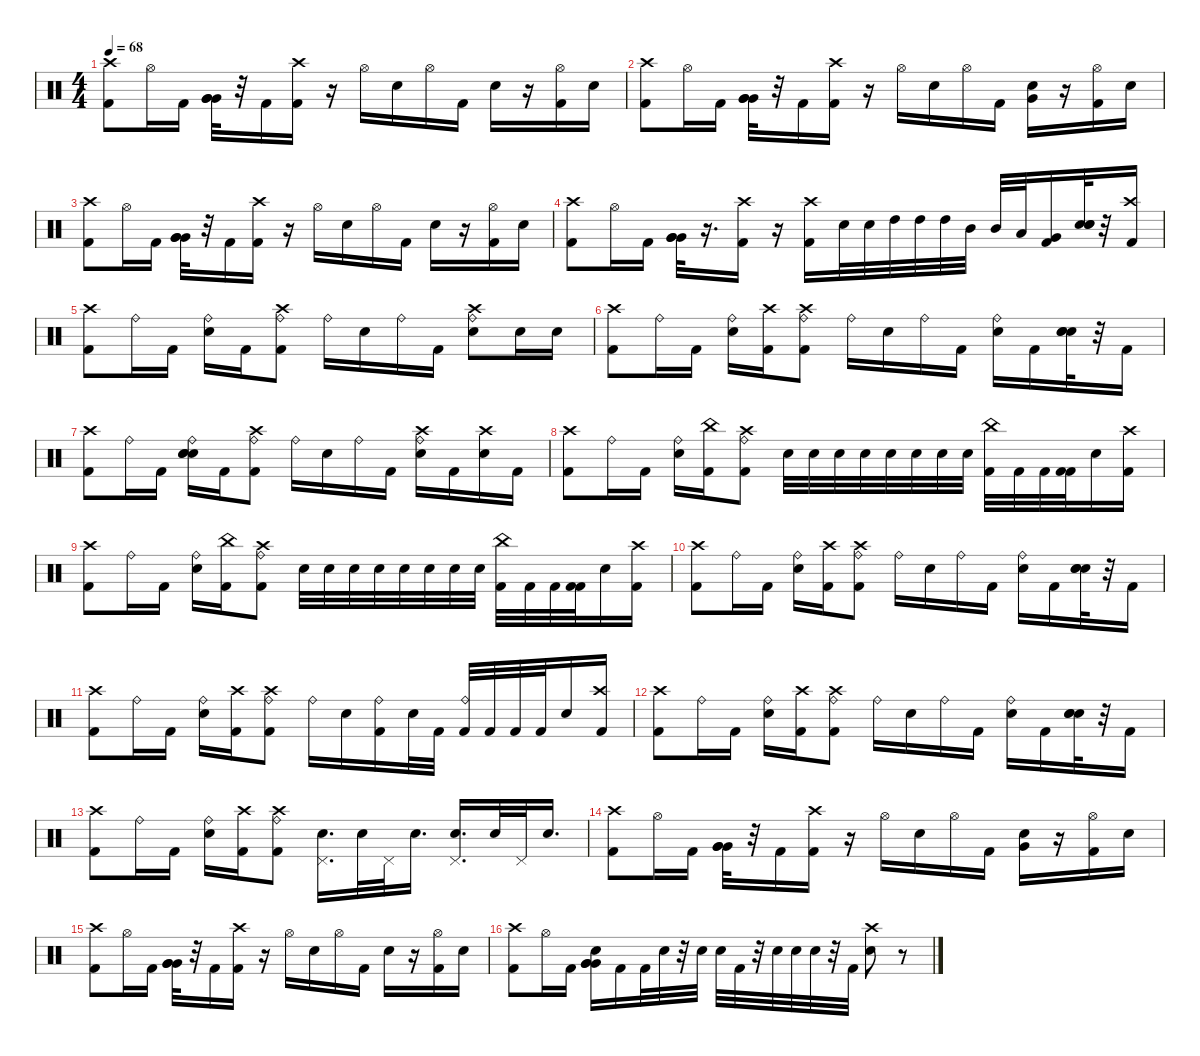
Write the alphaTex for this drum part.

\defaultSystemsLayout 4
\hideDynamics
\bracketExtendMode nobrackets
\singleTrackTrackNamePolicy hidden
\multiTrackTrackNamePolicy hidden
\firstSystemTrackNameMode fullname
\otherSystemsTrackNameOrientation horizontal
\track ("Drums" "drm.") {instrument percussion}
\staff {score}
\articulation defaults
\ts (4 4)
\tempo 68
\clef neutral
\ks c
("Crash high (hit)" "Kick (hit) 2").8{dy f beam Down} "Hi-Hat (open)".16{beam Down} "Kick (hit) 2".16{beam Down} ("Very Low Tom (hit)" "Very Low Tom (hit)" "Very Low Tom (hit)").32{beam Down} r.32{beam Down} "Kick (hit) 2".16{beam Down} ("Crash high (hit)" "Kick (hit) 2").16{beam Down} r.16{beam Down} "Hi-Hat (open)".16{beam Down} "Snare (hit) 2".16{beam Down} "Hi-Hat (open)".16{beam Down} "Kick (hit) 2".16{beam Down} "Snare (hit) 2".16{beam Down} r.16{beam Down} ("Kick (hit) 2" "Hi-Hat (open)").16{beam Down} "Snare (hit) 2".16{beam Down} |
("Kick (hit) 2" "Crash high (hit)").8{beam Down} "Hi-Hat (open)".16{beam Down} "Kick (hit) 2".16{beam Down} ("Very Low Tom (hit)" "Very Low Tom (hit)" "Very Low Tom (hit)").32{beam Down} r.32{beam Down} "Kick (hit) 2".16{beam Down} ("Crash high (hit)" "Kick (hit) 2").16{beam Down} r.16{beam Down} "Hi-Hat (open)".16{beam Down} "Snare (hit) 2".16{beam Down} "Hi-Hat (open)".16{beam Down} "Kick (hit) 2".16{beam Down} ("Snare (hit) 2" "Very Low Tom (hit)").16{beam Down} r.16{beam Down} ("Kick (hit) 2" "Hi-Hat (open)").16{beam Down} "Snare (hit) 2".16{beam Down} |
("Kick (hit) 2" "Crash high (hit)").8{beam Down} "Hi-Hat (open)".16{beam Down} "Kick (hit) 2".16{beam Down} ("Very Low Tom (hit)" "Very Low Tom (hit)" "Very Low Tom (hit)").32{beam Down} r.32{beam Down} "Kick (hit) 2".16{beam Down} ("Crash high (hit)" "Kick (hit) 2").16{beam Down} r.16{beam Down} "Hi-Hat (open)".16{beam Down} "Snare (hit) 2".16{beam Down} "Hi-Hat (open)".16{beam Down} "Kick (hit) 2".16{beam Down} "Snare (hit) 2".16{beam Down} r.16{beam Down} ("Kick (hit) 2" "Hi-Hat (open)").16{beam Down} "Snare (hit) 2".16{beam Down} |
("Crash high (hit)" "Kick (hit) 2").8{beam Down} "Hi-Hat (open)".16{beam Down} "Kick (hit) 2".16{beam Down} ("Very Low Tom (hit)" "Very Low Tom (hit)" "Very Low Tom (hit)").32{beam Down} r.16{d beam Down} ("Crash high (hit)" "Kick (hit) 2").16{beam Down} r.16{beam Down} ("Crash high (hit)" "Kick (hit) 2").16{beam Down} "Snare (hit) 2".32{beam Down} "Snare (hit) 2".32{beam Down} "High Tom (hit)".32{beam Down} "High Tom (hit)".32{beam Down} "High Tom (hit)".32{beam Down} "Mid Tom (hit)".32{beam Down} "Mid Tom (hit)".32{beam Up} "Low Tom (hit)".32{beam Up} ("Kick (hit) 2" "Very Low Tom (hit)").16{beam Up} ("Snare (hit) 2" "Snare (hit) 2" "Snare (hit) 2").32{beam Up} r.32{beam Up} ("Crash high (hit)" "Kick (hit) 2").16{beam Up} |
("Kick (hit) 2" "Crash high (hit)").8{beam Down} "Ride (bell)".16{beam Down} "Kick (hit) 2".16{beam Down} ("Ride (bell)" "Snare (hit) 2").16{beam Down} "Kick (hit) 2".16{beam Down} ("Ride (bell)" "Crash high (hit)" "Kick (hit) 2").8{beam Down} "Ride (bell)".16{beam Down} "Snare (hit) 2".16{beam Down} "Ride (bell)".16{beam Down} "Kick (hit) 2".16{beam Down} ("Snare (hit) 2" "Ride (bell)" "Crash high (hit)").8{beam Down} "Snare (hit) 2".16{beam Down} "Snare (hit) 2".16{beam Down} |
("Kick (hit) 2" "Crash high (hit)").8{beam Down} "Ride (bell)".16{beam Down} "Kick (hit) 2".16{beam Down} ("Ride (bell)" "Snare (hit) 2").16{beam Down} ("Crash high (hit)" "Kick (hit) 2").16{beam Down} ("Ride (bell)" "Crash high (hit)" "Kick (hit) 2").8{beam Down} "Ride (bell)".16{beam Down} "Snare (hit) 2".16{beam Down} "Ride (bell)".16{beam Down} "Kick (hit) 2".16{beam Down} ("Snare (hit) 2" "Ride (bell)").16{beam Down} "Kick (hit) 2".16{beam Down} ("Snare (hit) 2" "Snare (hit) 2" "Snare (hit) 2").32{beam Down} r.32{beam Down} "Kick (hit) 2".16{beam Down} |
("Kick (hit) 2" "Crash high (hit)").8{beam Down} "Ride (bell)".16{beam Down} "Kick (hit) 2".16{beam Down} ("Ride (bell)" "Snare (hit) 2" "Snare (hit) 2" "Snare (hit) 2").16{beam Down} "Kick (hit) 2".16{beam Down} ("Ride (bell)" "Crash high (hit)" "Kick (hit) 2").8{beam Down} "Ride (bell)".16{beam Down} "Snare (hit) 2".16{beam Down} "Ride (bell)".16{beam Down} "Kick (hit) 2".16{beam Down} ("Snare (hit) 2" "Ride (bell)" "Crash high (hit)").16{beam Down} "Kick (hit) 2".16{beam Down} ("Snare (hit) 2" "Crash high (hit)").16{beam Down} "Kick (hit) 2".16{beam Down} |
("Crash high (hit)" "Kick (hit) 2").8{beam Down} "Ride (bell)".16{beam Down} "Kick (hit) 2".16{beam Down} ("Ride (bell)" "Snare (hit) 2").16{beam Down} ("Kick (hit) 2" "China (hit)").16{beam Down} ("Ride (bell)" "Crash high (hit)" "Kick (hit) 2").8{beam Down} "Snare (hit) 2".32{beam Down} "Snare (hit) 2".32{beam Down} "Snare (hit) 2".32{beam Down} "Snare (hit) 2".32{beam Down} "Snare (hit) 2".32{beam Down} "Snare (hit) 2".32{beam Down} "Snare (hit) 2".32{beam Down} "Snare (hit) 2".32{beam Down} ("China (hit)" "Kick (hit) 2").32{beam Down} "Kick (hit) 2".32{beam Down} "Kick (hit) 2".32{beam Down} ("Kick (hit) 2" "Kick (hit) 2").32{beam Down} "Snare (hit) 2".16{beam Down} ("Crash high (hit)" "Kick (hit) 2").16{beam Down} |
("Crash high (hit)" "Kick (hit) 2").8{beam Down} "Ride (bell)".16{beam Down} "Kick (hit) 2".16{beam Down} ("Ride (bell)" "Snare (hit) 2").16{beam Down} ("Kick (hit) 2" "China (hit)").16{beam Down} ("Ride (bell)" "Crash high (hit)" "Kick (hit) 2").8{beam Down} "Snare (hit) 2".32{beam Down} "Snare (hit) 2".32{beam Down} "Snare (hit) 2".32{beam Down} "Snare (hit) 2".32{beam Down} "Snare (hit) 2".32{beam Down} "Snare (hit) 2".32{beam Down} "Snare (hit) 2".32{beam Down} "Snare (hit) 2".32{beam Down} ("China (hit)" "Kick (hit) 2").32{beam Down} "Kick (hit) 2".32{beam Down} "Kick (hit) 2".32{beam Down} ("Kick (hit) 2" "Kick (hit) 2").32{beam Down} "Snare (hit) 2".16{beam Down} ("Crash high (hit)" "Kick (hit) 2").16{beam Down} |
("Kick (hit) 2" "Crash high (hit)").8{beam Down} "Ride (bell)".16{beam Down} "Kick (hit) 2".16{beam Down} ("Ride (bell)" "Snare (hit) 2").16{beam Down} ("Kick (hit) 2" "Crash high (hit)").16{beam Down} ("Ride (bell)" "Crash high (hit)" "Kick (hit) 2").8{beam Down} "Ride (bell)".16{beam Down} "Snare (hit) 2".16{beam Down} "Ride (bell)".16{beam Down} "Kick (hit) 2".16{beam Down} ("Snare (hit) 2" "Ride (bell)").16{beam Down} "Kick (hit) 2".16{beam Down} ("Snare (hit) 2" "Snare (hit) 2" "Snare (hit) 2").32{beam Down} r.32{beam Down} "Kick (hit) 2".16{beam Down} |
("Kick (hit) 2" "Crash high (hit)").8{beam Down} "Ride (bell)".16{beam Down} "Kick (hit) 2".16{beam Down} ("Ride (bell)" "Snare (hit) 2").16{beam Down} ("Crash high (hit)" "Kick (hit) 2").16{beam Down} ("Ride (bell)" "Crash high (hit)" "Kick (hit) 2").8{beam Down} "Ride (bell)".16{beam Down} "Snare (hit) 2".16{beam Down} ("Ride (bell)" "Kick (hit) 2").16{beam Down} "Snare (hit) 2".32{beam Down} "Kick (hit) 2".32{beam Down} ("Kick (hit) 2" "Ride (bell)").32{beam Up} "Kick (hit) 2".32{beam Up} "Kick (hit) 2".32{beam Up} "Kick (hit) 2".32{beam Up} "Snare (hit) 2".16{beam Up} ("Crash high (hit)" "Kick (hit) 2").16{beam Up} |
("Kick (hit) 2" "Crash high (hit)").8{beam Down} "Ride (bell)".16{beam Down} "Kick (hit) 2".16{beam Down} ("Ride (bell)" "Snare (hit) 2").16{beam Down} ("Crash high (hit)" "Kick (hit) 2").16{beam Down} ("Ride (bell)" "Crash high (hit)" "Kick (hit) 2").8{beam Down} "Ride (bell)".16{beam Down} "Snare (hit) 2".16{beam Down} "Ride (bell)".16{beam Down} "Kick (hit) 2".16{beam Down} ("Snare (hit) 2" "Ride (bell)").16{beam Down} "Kick (hit) 2".16{beam Down} ("Snare (hit) 2" "Snare (hit) 2" "Snare (hit) 2").32{beam Down} r.32{beam Down} "Kick (hit) 2".16{beam Down} |
("Crash high (hit)" "Kick (hit) 2").8{beam Down} "Ride (bell)".16{beam Down} "Kick (hit) 2".16{beam Down} ("Ride (bell)" "Snare (hit) 2").16{beam Down} ("Crash high (hit)" "Kick (hit) 2").16{beam Down} ("Ride (bell)" "Crash high (hit)" "Kick (hit) 2").8{beam Down} ("Snare (hit) 2" "Pedal Hi-Hat (hit)").16{d beam Down} "Snare (hit) 2".32{beam Down} "Pedal Hi-Hat (hit)".32{dy p beam Down} "Snare (hit) 2".16{d dy f beam Down} ("Snare (hit) 2" "Pedal Hi-Hat (hit)").16{d beam Up} "Snare (hit) 2".32{beam Up} "Pedal Hi-Hat (hit)".32{dy p beam Up} "Snare (hit) 2".16{d dy f beam Up} |
("Kick (hit) 2" "Crash high (hit)").8{beam Down} "Hi-Hat (open)".16{beam Down} "Kick (hit) 2".16{beam Down} ("Very Low Tom (hit)" "Very Low Tom (hit)" "Very Low Tom (hit)").32{beam Down} r.32{beam Down} "Kick (hit) 2".16{beam Down} ("Crash high (hit)" "Kick (hit) 2").16{beam Down} r.16{beam Down} "Hi-Hat (open)".16{beam Down} "Snare (hit) 2".16{beam Down} "Hi-Hat (open)".16{beam Down} "Kick (hit) 2".16{beam Down} ("Snare (hit) 2" "Very Low Tom (hit)").16{beam Down} r.16{beam Down} ("Kick (hit) 2" "Hi-Hat (open)").16{beam Down} "Snare (hit) 2".16{beam Down} |
("Kick (hit) 2" "Crash high (hit)").8{beam Down} "Hi-Hat (open)".16{beam Down} "Kick (hit) 2".16{beam Down} ("Very Low Tom (hit)" "Very Low Tom (hit)" "Very Low Tom (hit)").32{beam Down} r.32{beam Down} "Kick (hit) 2".16{beam Down} ("Crash high (hit)" "Kick (hit) 2").16{beam Down} r.16{beam Down} "Hi-Hat (open)".16{beam Down} "Snare (hit) 2".16{beam Down} "Hi-Hat (open)".16{beam Down} "Kick (hit) 2".16{beam Down} "Snare (hit) 2".16{beam Down} r.16{beam Down} ("Kick (hit) 2" "Hi-Hat (open)").16{beam Down} "Snare (hit) 2".16{beam Down} |
("Crash high (hit)" "Kick (hit) 2").8{beam Down} "Hi-Hat (open)".16{beam Down} "Kick (hit) 2".16{beam Down} ("Very Low Tom (hit)" "Very Low Tom (hit)" "Snare (hit) 2" "Very Low Tom (hit)").16{beam Down} "Kick (hit) 2".16{beam Down} "Kick (hit) 2".32{beam Down} "Snare (hit) 2".32{beam Down} r.32{beam Down} "Snare (hit) 2".32{beam Down} "Snare (hit) 2".32{beam Down} "Kick (hit) 2".32{beam Down} r.32{beam Down} "Snare (hit) 2".32{beam Down} "Snare (hit) 2".32{beam Down} "Snare (hit) 2".32{beam Down} r.32{beam Down} "Kick (hit) 2".32{beam Down} ("Snare (hit) 2" "Crash high (hit)").8{beam Down} r.8{beam Down}
